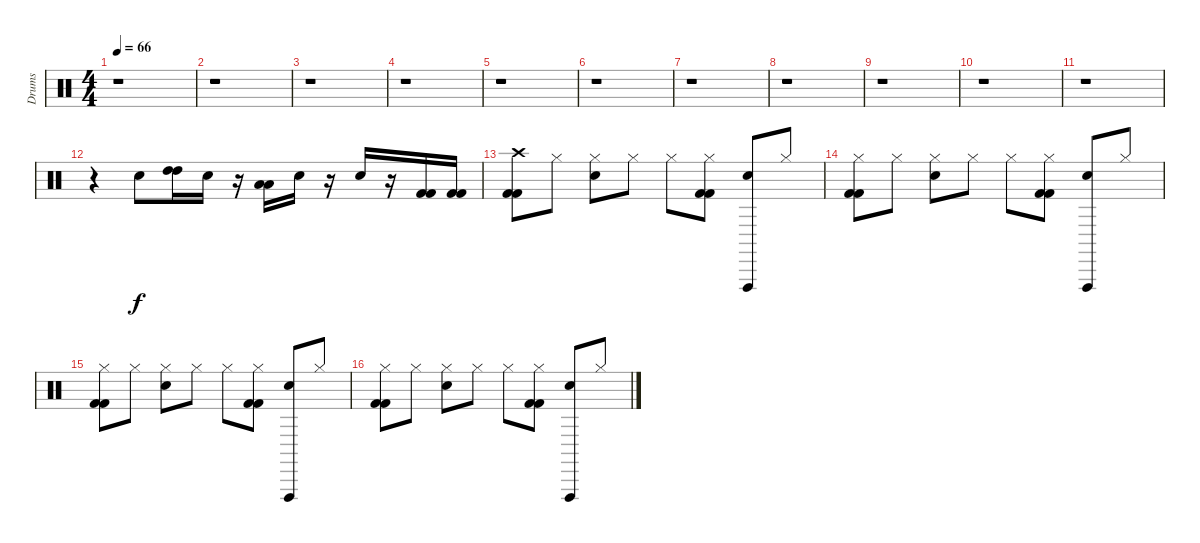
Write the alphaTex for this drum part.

\track ("Drums" "Drums") {instrument percussion}
\staff {score}
\articulation defaults
\ts (4 4)
\tempo 66
\clef neutral
\ks c
r.1{dy f} |
r.1 |
r.1 |
r.1 |
r.1 |
r.1 |
r.1 |
r.1 |
r.1 |
r.1 |
r.1 |
r.4 "Snare (hit) 2".8 ("High Tom (hit)" "High Tom (hit)").16 "Snare (hit) 2".16 r.16 ("Low Tom (hit)" "Low Tom (hit)").16 "Snare (hit) 2".16 r.16 "Snare (hit) 2".16 r.16 ("Kick (hit) 2" "Kick (hit) 2").16 ("Kick (hit) 2" "Kick (hit) 2").16 |
("Crash high (hit)" "Kick (hit) 2" "Kick (hit) 2").8 "Hi-Hat (closed)".8 ("Hi-Hat (closed)" "Snare (hit) 2").8 "Hi-Hat (closed)".8 "Hi-Hat (closed)".8 ("Hi-Hat (closed)" "Kick (hit) 2" "Kick (hit) 2").8 ("Vibraslap (hit)" "Snare (hit) 2").8 "Hi-Hat (closed)".8 |
("Hi-Hat (closed)" "Kick (hit) 2" "Kick (hit) 2").8 "Hi-Hat (closed)".8 ("Hi-Hat (closed)" "Snare (hit) 2").8 "Hi-Hat (closed)".8 "Hi-Hat (closed)".8 ("Hi-Hat (closed)" "Kick (hit) 2" "Kick (hit) 2").8 ("Vibraslap (hit)" "Snare (hit) 2").8 "Hi-Hat (closed)".8 |
("Hi-Hat (closed)" "Kick (hit) 2" "Kick (hit) 2").8 "Hi-Hat (closed)".8 ("Hi-Hat (closed)" "Snare (hit) 2").8 "Hi-Hat (closed)".8 "Hi-Hat (closed)".8 ("Hi-Hat (closed)" "Kick (hit) 2" "Kick (hit) 2").8 ("Vibraslap (hit)" "Snare (hit) 2").8 "Hi-Hat (closed)".8 |
("Hi-Hat (closed)" "Kick (hit) 2" "Kick (hit) 2").8 "Hi-Hat (closed)".8 ("Hi-Hat (closed)" "Snare (hit) 2").8 "Hi-Hat (closed)".8 "Hi-Hat (closed)".8 ("Hi-Hat (closed)" "Kick (hit) 2" "Kick (hit) 2").8 ("Vibraslap (hit)" "Snare (hit) 2").8 "Hi-Hat (closed)".8
